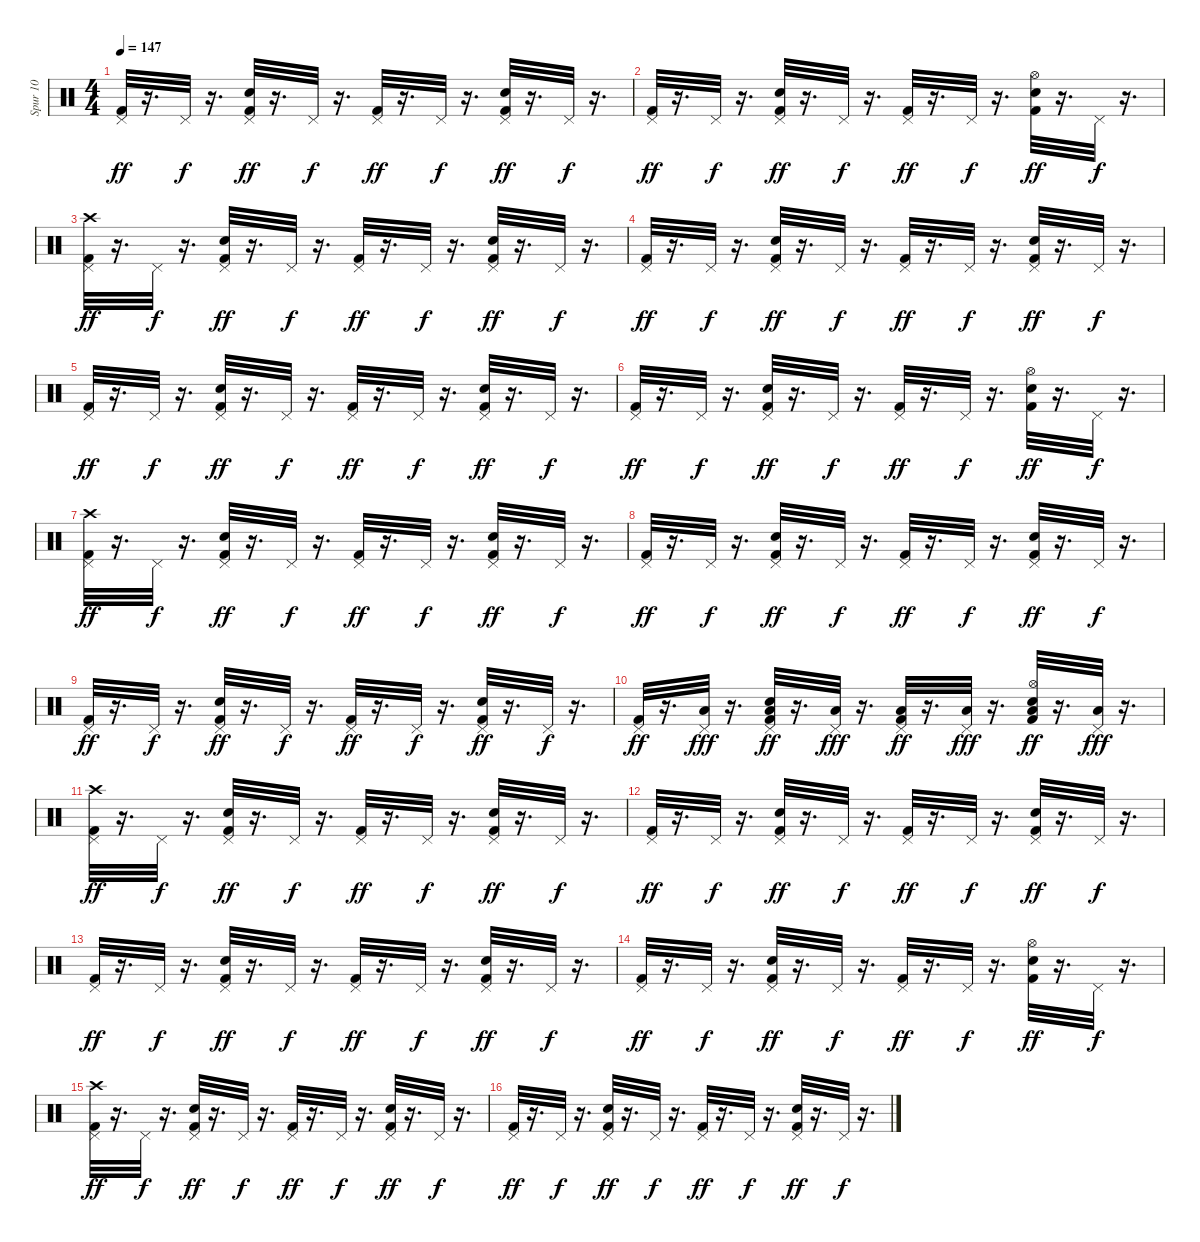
\track ("Spur 10" "Spur 10") {instrument percussion}
\staff {score}
\articulation defaults
\ts (4 4)
\tempo 147
\clef neutral
\ks c
("Pedal Hi-Hat (hit)" "Kick (hit) 2").32{dy ff} r.16{d} "Pedal Hi-Hat (hit)".32{dy f} r.16{d} ("Snare (hit) 2" "Kick (hit) 2" "Pedal Hi-Hat (hit)").32{dy ff} r.16{d} "Pedal Hi-Hat (hit)".32{dy f} r.16{d} ("Kick (hit) 2" "Pedal Hi-Hat (hit)").32{dy ff} r.16{d} "Pedal Hi-Hat (hit)".32{dy f} r.16{d} ("Snare (hit) 2" "Pedal Hi-Hat (hit)" "Kick (hit) 2").32{dy ff} r.16{d} "Pedal Hi-Hat (hit)".32{dy f} r.16{d} |
("Pedal Hi-Hat (hit)" "Kick (hit) 2").32{dy ff} r.16{d} "Pedal Hi-Hat (hit)".32{dy f} r.16{d} ("Snare (hit) 2" "Kick (hit) 2" "Pedal Hi-Hat (hit)").32{dy ff} r.16{d} "Pedal Hi-Hat (hit)".32{dy f} r.16{d} ("Kick (hit) 2" "Pedal Hi-Hat (hit)").32{dy ff} r.16{d} "Pedal Hi-Hat (hit)".32{dy f} r.16{d} ("Snare (hit) 2" "Hi-Hat (open)" "Kick (hit) 2").32{dy ff} r.16{d} "Pedal Hi-Hat (hit)".32{dy f} r.16{d} |
("Pedal Hi-Hat (hit)" "Kick (hit) 2" "Crash high (hit)").32{dy ff} r.16{d} "Pedal Hi-Hat (hit)".32{dy f} r.16{d} ("Snare (hit) 2" "Kick (hit) 2" "Pedal Hi-Hat (hit)").32{dy ff} r.16{d} "Pedal Hi-Hat (hit)".32{dy f} r.16{d} ("Kick (hit) 2" "Pedal Hi-Hat (hit)").32{dy ff} r.16{d} "Pedal Hi-Hat (hit)".32{dy f} r.16{d} ("Snare (hit) 2" "Pedal Hi-Hat (hit)" "Kick (hit) 2").32{dy ff} r.16{d} "Pedal Hi-Hat (hit)".32{dy f} r.16{d} |
("Pedal Hi-Hat (hit)" "Kick (hit) 2").32{dy ff} r.16{d} "Pedal Hi-Hat (hit)".32{dy f} r.16{d} ("Snare (hit) 2" "Kick (hit) 2" "Pedal Hi-Hat (hit)").32{dy ff} r.16{d} "Pedal Hi-Hat (hit)".32{dy f} r.16{d} ("Kick (hit) 2" "Pedal Hi-Hat (hit)").32{dy ff} r.16{d} "Pedal Hi-Hat (hit)".32{dy f} r.16{d} ("Snare (hit) 2" "Pedal Hi-Hat (hit)" "Kick (hit) 2").32{dy ff} r.16{d} "Pedal Hi-Hat (hit)".32{dy f} r.16{d} |
("Pedal Hi-Hat (hit)" "Kick (hit) 2").32{dy ff} r.16{d} "Pedal Hi-Hat (hit)".32{dy f} r.16{d} ("Snare (hit) 2" "Kick (hit) 2" "Pedal Hi-Hat (hit)").32{dy ff} r.16{d} "Pedal Hi-Hat (hit)".32{dy f} r.16{d} ("Kick (hit) 2" "Pedal Hi-Hat (hit)").32{dy ff} r.16{d} "Pedal Hi-Hat (hit)".32{dy f} r.16{d} ("Snare (hit) 2" "Pedal Hi-Hat (hit)" "Kick (hit) 2").32{dy ff} r.16{d} "Pedal Hi-Hat (hit)".32{dy f} r.16{d} |
("Pedal Hi-Hat (hit)" "Kick (hit) 2").32{dy ff} r.16{d} "Pedal Hi-Hat (hit)".32{dy f} r.16{d} ("Snare (hit) 2" "Kick (hit) 2" "Pedal Hi-Hat (hit)").32{dy ff} r.16{d} "Pedal Hi-Hat (hit)".32{dy f} r.16{d} ("Kick (hit) 2" "Pedal Hi-Hat (hit)").32{dy ff} r.16{d} "Pedal Hi-Hat (hit)".32{dy f} r.16{d} ("Snare (hit) 2" "Hi-Hat (open)" "Kick (hit) 2").32{dy ff} r.16{d} "Pedal Hi-Hat (hit)".32{dy f} r.16{d} |
("Pedal Hi-Hat (hit)" "Kick (hit) 2" "Crash high (hit)").32{dy ff} r.16{d} "Pedal Hi-Hat (hit)".32{dy f} r.16{d} ("Snare (hit) 2" "Kick (hit) 2" "Pedal Hi-Hat (hit)").32{dy ff} r.16{d} "Pedal Hi-Hat (hit)".32{dy f} r.16{d} ("Kick (hit) 2" "Pedal Hi-Hat (hit)").32{dy ff} r.16{d} "Pedal Hi-Hat (hit)".32{dy f} r.16{d} ("Snare (hit) 2" "Pedal Hi-Hat (hit)" "Kick (hit) 2").32{dy ff} r.16{d} "Pedal Hi-Hat (hit)".32{dy f} r.16{d} |
("Pedal Hi-Hat (hit)" "Kick (hit) 2").32{dy ff} r.16{d} "Pedal Hi-Hat (hit)".32{dy f} r.16{d} ("Snare (hit) 2" "Kick (hit) 2" "Pedal Hi-Hat (hit)").32{dy ff} r.16{d} "Pedal Hi-Hat (hit)".32{dy f} r.16{d} ("Kick (hit) 2" "Pedal Hi-Hat (hit)").32{dy ff} r.16{d} "Pedal Hi-Hat (hit)".32{dy f} r.16{d} ("Snare (hit) 2" "Pedal Hi-Hat (hit)" "Kick (hit) 2").32{dy ff} r.16{d} "Pedal Hi-Hat (hit)".32{dy f} r.16{d} |
("Pedal Hi-Hat (hit)" "Kick (hit) 2").32{dy ff} r.16{d} "Pedal Hi-Hat (hit)".32{dy f} r.16{d} ("Snare (hit) 2" "Kick (hit) 2" "Pedal Hi-Hat (hit)").32{dy ff} r.16{d} "Pedal Hi-Hat (hit)".32{dy f} r.16{d} ("Kick (hit) 2" "Pedal Hi-Hat (hit)").32{dy ff} r.16{d} "Pedal Hi-Hat (hit)".32{dy f} r.16{d} ("Snare (hit) 2" "Pedal Hi-Hat (hit)" "Kick (hit) 2").32{dy ff} r.16{d} "Pedal Hi-Hat (hit)".32{dy f} r.16{d} |
("Pedal Hi-Hat (hit)" "Kick (hit) 2").32{dy ff} r.16{d} ("Low Tom (hit)" "Pedal Hi-Hat (hit)").32{dy fff} r.16{d} ("Low Tom (hit)" "Snare (hit) 2" "Kick (hit) 2" "Pedal Hi-Hat (hit)").32{dy ff} r.16{d} ("Low Tom (hit)" "Pedal Hi-Hat (hit)").32{dy fff} r.16{d} ("Low Tom (hit)" "Kick (hit) 2" "Pedal Hi-Hat (hit)").32{dy ff} r.16{d} ("Low Floor Tom (hit)" "Pedal Hi-Hat (hit)").32{dy fff} r.16{d} ("Low Floor Tom (hit)" "Snare (hit) 2" "Hi-Hat (open)" "Kick (hit) 2").32{dy ff} r.16{d} ("Low Floor Tom (hit)" "Pedal Hi-Hat (hit)").32{dy fff} r.16{d} |
("Pedal Hi-Hat (hit)" "Kick (hit) 2" "Crash high (hit)").32{dy ff} r.16{d} "Pedal Hi-Hat (hit)".32{dy f} r.16{d} ("Snare (hit) 2" "Kick (hit) 2" "Pedal Hi-Hat (hit)").32{dy ff} r.16{d} "Pedal Hi-Hat (hit)".32{dy f} r.16{d} ("Kick (hit) 2" "Pedal Hi-Hat (hit)").32{dy ff} r.16{d} "Pedal Hi-Hat (hit)".32{dy f} r.16{d} ("Snare (hit) 2" "Pedal Hi-Hat (hit)" "Kick (hit) 2").32{dy ff} r.16{d} "Pedal Hi-Hat (hit)".32{dy f} r.16{d} |
("Pedal Hi-Hat (hit)" "Kick (hit) 2").32{dy ff} r.16{d} "Pedal Hi-Hat (hit)".32{dy f} r.16{d} ("Snare (hit) 2" "Kick (hit) 2" "Pedal Hi-Hat (hit)").32{dy ff} r.16{d} "Pedal Hi-Hat (hit)".32{dy f} r.16{d} ("Kick (hit) 2" "Pedal Hi-Hat (hit)").32{dy ff} r.16{d} "Pedal Hi-Hat (hit)".32{dy f} r.16{d} ("Snare (hit) 2" "Pedal Hi-Hat (hit)" "Kick (hit) 2").32{dy ff} r.16{d} "Pedal Hi-Hat (hit)".32{dy f} r.16{d} |
("Pedal Hi-Hat (hit)" "Kick (hit) 2").32{dy ff} r.16{d} "Pedal Hi-Hat (hit)".32{dy f} r.16{d} ("Snare (hit) 2" "Kick (hit) 2" "Pedal Hi-Hat (hit)").32{dy ff} r.16{d} "Pedal Hi-Hat (hit)".32{dy f} r.16{d} ("Kick (hit) 2" "Pedal Hi-Hat (hit)").32{dy ff} r.16{d} "Pedal Hi-Hat (hit)".32{dy f} r.16{d} ("Snare (hit) 2" "Pedal Hi-Hat (hit)" "Kick (hit) 2").32{dy ff} r.16{d} "Pedal Hi-Hat (hit)".32{dy f} r.16{d} |
("Pedal Hi-Hat (hit)" "Kick (hit) 2").32{dy ff} r.16{d} "Pedal Hi-Hat (hit)".32{dy f} r.16{d} ("Snare (hit) 2" "Kick (hit) 2" "Pedal Hi-Hat (hit)").32{dy ff} r.16{d} "Pedal Hi-Hat (hit)".32{dy f} r.16{d} ("Kick (hit) 2" "Pedal Hi-Hat (hit)").32{dy ff} r.16{d} "Pedal Hi-Hat (hit)".32{dy f} r.16{d} ("Snare (hit) 2" "Hi-Hat (open)" "Kick (hit) 2").32{dy ff} r.16{d} "Pedal Hi-Hat (hit)".32{dy f} r.16{d} |
("Pedal Hi-Hat (hit)" "Kick (hit) 2" "Crash high (hit)").32{dy ff} r.16{d} "Pedal Hi-Hat (hit)".32{dy f} r.16{d} ("Snare (hit) 2" "Kick (hit) 2" "Pedal Hi-Hat (hit)").32{dy ff} r.16{d} "Pedal Hi-Hat (hit)".32{dy f} r.16{d} ("Kick (hit) 2" "Pedal Hi-Hat (hit)").32{dy ff} r.16{d} "Pedal Hi-Hat (hit)".32{dy f} r.16{d} ("Snare (hit) 2" "Pedal Hi-Hat (hit)" "Kick (hit) 2").32{dy ff} r.16{d} "Pedal Hi-Hat (hit)".32{dy f} r.16{d} |
("Pedal Hi-Hat (hit)" "Kick (hit) 2").32{dy ff} r.16{d} "Pedal Hi-Hat (hit)".32{dy f} r.16{d} ("Snare (hit) 2" "Kick (hit) 2" "Pedal Hi-Hat (hit)").32{dy ff} r.16{d} "Pedal Hi-Hat (hit)".32{dy f} r.16{d} ("Kick (hit) 2" "Pedal Hi-Hat (hit)").32{dy ff} r.16{d} "Pedal Hi-Hat (hit)".32{dy f} r.16{d} ("Snare (hit) 2" "Pedal Hi-Hat (hit)" "Kick (hit) 2").32{dy ff} r.16{d} "Pedal Hi-Hat (hit)".32{dy f} r.16{d}
